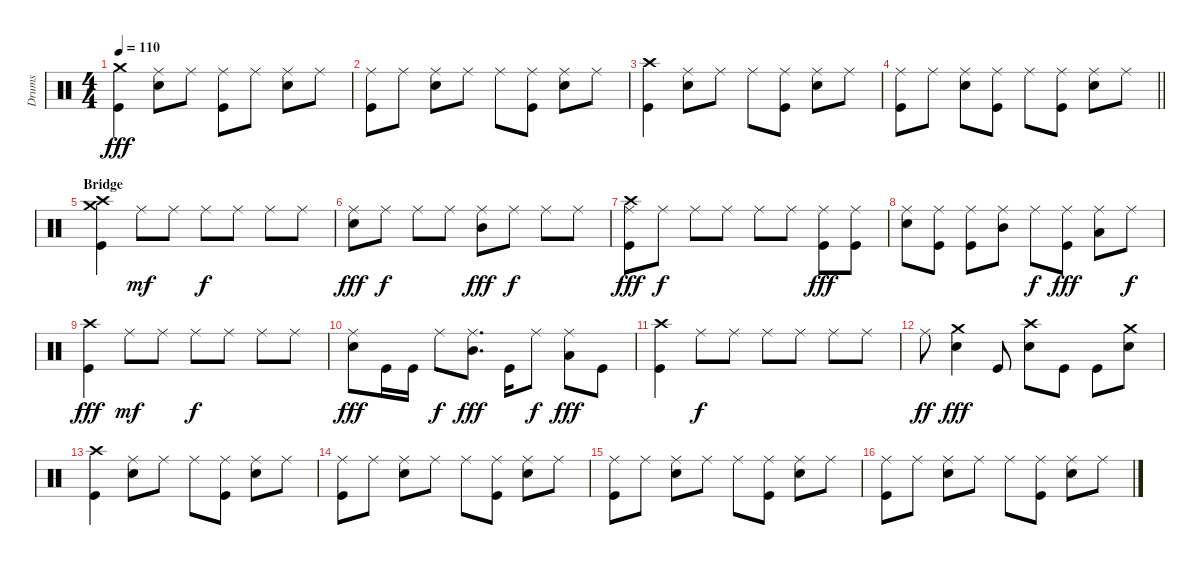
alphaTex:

\track ("Drums" "Drums") {instrument percussion}
\staff {score}
\articulation defaults
\ts (4 4)
\tempo 110
\clef neutral
\ks c
("Crash medium (hit)" "Kick (hit)").4{dy fff} ("Ride (middle)" "Snare (hit) 2").8 "Ride (middle)".8 ("Ride (middle)" "Kick (hit)").8 "Ride (middle)".8 ("Ride (middle)" "Snare (hit) 2").8 "Ride (middle)".8 |
("Ride (middle)" "Kick (hit)").8 "Ride (middle)".8 ("Ride (middle)" "Snare (hit) 2").8 "Ride (middle)".8 "Ride (middle)".8 ("Ride (middle)" "Kick (hit)").8 ("Ride (middle)" "Snare (hit) 2").8 "Ride (middle)".8 |
("Crash high (hit)" "Kick (hit)").4 ("Ride (middle)" "Snare (hit) 2").8 "Ride (middle)".8 "Ride (middle)".8 ("Ride (middle)" "Kick (hit)").8 ("Ride (middle)" "Snare (hit) 2").8 "Ride (middle)".8 |
\barLineRight lightlight
("Ride (middle)" "Kick (hit)").8 "Ride (middle)".8 ("Ride (middle)" "Snare (hit) 2").8 ("Ride (middle)" "Kick (hit)").8 "Ride (middle)".8 ("Ride (middle)" "Kick (hit)").8 ("Ride (middle)" "Snare (hit) 2").8 "Ride (middle)".8 |
\section ("" "Bridge")
("Crash medium (hit)" "Crash high (hit)" "Kick (hit)").4 "Ride (middle)".8{dy mf} "Ride (middle)".8 "Ride (middle)".8{dy f} "Ride (middle)".8 "Ride (middle)".8 "Ride (middle)".8 |
("Ride (middle)" "Snare (hit) 2").8{dy fff} "Ride (middle)".8{dy f} "Ride (middle)".8 "Ride (middle)".8 ("Ride (middle)" "Mid Tom (hit)").8{dy fff} "Ride (middle)".8{dy f} "Ride (middle)".8 "Ride (middle)".8 |
("Crash high (hit)" "Ride (middle)" "Kick (hit)").8{dy fff} "Ride (middle)".8{dy f} "Ride (middle)".8 "Ride (middle)".8 "Ride (middle)".8 "Ride (middle)".8 ("Ride (middle)" "Kick (hit)").8{dy fff} ("Ride (middle)" "Kick (hit)").8 |
("Ride (middle)" "Snare (hit) 2").8 ("Ride (middle)" "Kick (hit)").8 ("Ride (middle)" "Kick (hit)").8 ("Ride (middle)" "Mid Tom (hit)").8 "Ride (middle)".8{dy f} ("Ride (middle)" "Kick (hit)").8{dy fff} ("Ride (middle)" "Low Tom (hit)").8 "Ride (middle)".8{dy f} |
("Crash high (hit)" "Kick (hit)").4{dy fff} "Ride (middle)".8{dy mf} "Ride (middle)".8 "Ride (middle)".8{dy f} "Ride (middle)".8 "Ride (middle)".8 "Ride (middle)".8 |
("Ride (middle)" "Snare (hit) 2").8{dy fff} "Kick (hit)".16 "Kick (hit)".16 "Ride (middle)".8{dy f} ("Ride (middle)" "Mid Tom (hit)").8{d dy fff} "Kick (hit)".16 "Ride (middle)".8{dy f} ("Ride (middle)" "Low Tom (hit)").8{dy fff} "Kick (hit)".8 |
("Crash high (hit)" "Kick (hit)").4 "Ride (middle)".8{dy f} "Ride (middle)".8 "Ride (middle)".8 "Ride (middle)".8 "Ride (middle)".8 "Ride (middle)".8 |
"Ride (middle)".8{dy ff} ("Crash medium (hit)" "Snare (hit) 2").4{dy fff} "Kick (hit)".8 ("Crash high (hit)" "Snare (hit) 2").8 "Kick (hit)".8 "Kick (hit)".8 ("Crash medium (hit)" "Snare (hit) 2").8 |
("Crash high (hit)" "Kick (hit)").4 ("Ride (middle)" "Snare (hit) 2").8 "Ride (middle)".8 "Ride (middle)".8 ("Ride (middle)" "Kick (hit)").8 ("Ride (middle)" "Snare (hit) 2").8 "Ride (middle)".8 |
("Ride (middle)" "Kick (hit)").8 "Ride (middle)".8 ("Ride (middle)" "Snare (hit) 2").8 "Ride (middle)".8 "Ride (middle)".8 ("Ride (middle)" "Kick (hit)").8 ("Ride (middle)" "Snare (hit) 2").8 "Ride (middle)".8 |
("Ride (middle)" "Kick (hit)").8 "Ride (middle)".8 ("Ride (middle)" "Snare (hit) 2").8 "Ride (middle)".8 "Ride (middle)".8 ("Ride (middle)" "Kick (hit)").8 ("Ride (middle)" "Snare (hit) 2").8 "Ride (middle)".8 |
("Ride (middle)" "Kick (hit)").8 "Ride (middle)".8 ("Ride (middle)" "Snare (hit) 2").8 "Ride (middle)".8 "Ride (middle)".8 ("Ride (middle)" "Kick (hit)").8 ("Ride (middle)" "Snare (hit) 2").8 "Ride (middle)".8
